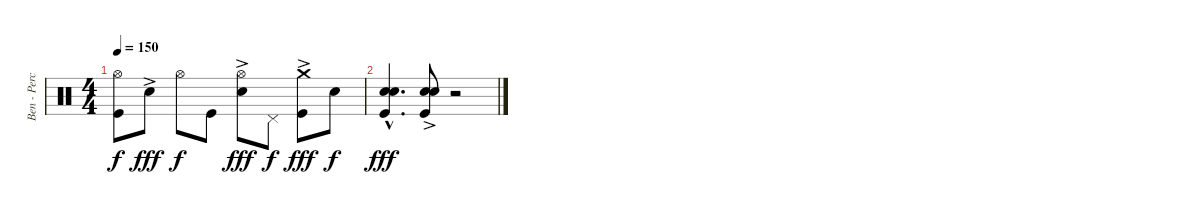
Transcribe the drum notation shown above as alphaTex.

\track ("Ben - Perception Twin - Drums" "Ben - Perc") {instrument percussion}
\staff {score}
\articulation defaults
\ts (4 4)
\tempo 150
\clef neutral
\ks c
("Hi-Hat (open)" "Kick (hit)").8{dy f} "Electric Snare (hit)"{ac}.8{dy fff} "Hi-Hat (open)".8{dy f} "Kick (hit)".8 ("Hi-Hat (open)" "Electric Snare (hit)"{ac}).8{dy fff} "Pedal Hi-Hat (hit)".8{dy f} ("Crash medium (hit)"{ac} "Kick (hit)").8{dy fff} "Electric Snare (hit)".8{dy f} |
("Electric Snare (hit)"{hac} "Electric Snare (hit)"{hac} "Kick (hit)"{hac}).4{d dy fff} ("Electric Snare (hit)"{ac} "Electric Snare (hit)"{ac} "Kick (hit)"{ac}).8 r.2
